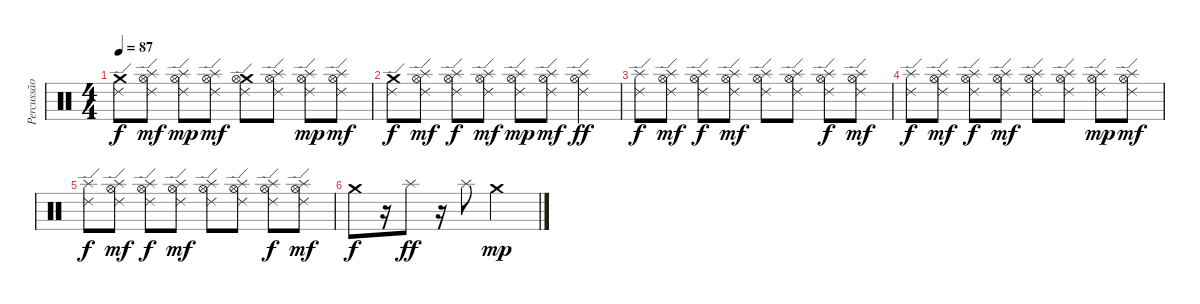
\track ("Percussão" "Percussão") {instrument percussion}
\staff {score}
\articulation defaults
\ts (4 4)
\tempo 87
\clef neutral
\ks c
("Crash medium (hit)" "Ride (edge) 2").8{dy f} ("Splash (hit)" "Hi-Hat (open)" "Ride (edge) 2").8{dy mf} ("Splash (hit)" "Hi-Hat (open)" "Ride (edge) 2").8{dy mp} ("Splash (hit)" "Hi-Hat (open)" "Ride (edge) 2").8{dy mf} ("Crash medium (hit)" "Hi-Hat (open)" "Ride (edge) 2").8 ("Splash (hit)" "Hi-Hat (open)" "Ride (edge) 2").8 ("Splash (hit)" "Hi-Hat (open)" "Ride (edge) 2").8{dy mp} ("Splash (hit)" "Hi-Hat (open)" "Ride (edge) 2").8{dy mf} |
("Crash medium (hit)" "Ride (edge) 2").8{dy f} ("Splash (hit)" "Hi-Hat (open)" "Ride (edge) 2").8{dy mf} ("Splash (hit)" "Hi-Hat (open)" "Ride (edge) 2").8{dy f} ("Splash (hit)" "Hi-Hat (open)" "Ride (edge) 2").8{dy mf} ("Splash (hit)" "Hi-Hat (open)" "Ride (edge) 2").8{dy mp} ("Splash (hit)" "Hi-Hat (open)" "Ride (edge) 2").8{dy mf} ("Splash (hit)" "Hi-Hat (open)" "Ride (edge) 2").4{dy ff} |
("Splash (hit)" "Ride (edge) 2").8{dy f} ("Splash (hit)" "Hi-Hat (open)" "Ride (edge) 2").8{dy mf} ("Splash (hit)" "Hi-Hat (open)" "Ride (edge) 2").8{dy f} ("Splash (hit)" "Hi-Hat (open)" "Ride (edge) 2").8{dy mf} ("Splash (hit)" "Hi-Hat (open)" "Ride (edge) 2").8 ("Splash (hit)" "Hi-Hat (open)" "Ride (edge) 2").8 ("Splash (hit)" "Hi-Hat (open)" "Ride (edge) 2").8{dy f} ("Splash (hit)" "Hi-Hat (open)" "Ride (edge) 2").8{dy mf} |
("Splash (hit)" "Ride (edge) 2").8{dy f} ("Splash (hit)" "Hi-Hat (open)" "Ride (edge) 2").8{dy mf} ("Splash (hit)" "Hi-Hat (open)" "Ride (edge) 2").8{dy f} ("Splash (hit)" "Hi-Hat (open)" "Ride (edge) 2").8{dy mf} ("Splash (hit)" "Hi-Hat (open)" "Ride (edge) 2").8 ("Splash (hit)" "Hi-Hat (open)" "Ride (edge) 2").8 ("Splash (hit)" "Hi-Hat (open)" "Ride (edge) 2").8{dy mp} ("Splash (hit)" "Hi-Hat (open)" "Ride (edge) 2").8{dy mf} |
("Splash (hit)" "Ride (edge) 2").8{dy f} ("Splash (hit)" "Hi-Hat (open)" "Ride (edge) 2").8{dy mf} ("Splash (hit)" "Hi-Hat (open)" "Ride (edge) 2").8{dy f} ("Splash (hit)" "Hi-Hat (open)" "Ride (edge) 2").8{dy mf} ("Splash (hit)" "Hi-Hat (open)" "Ride (edge) 2").8 ("Splash (hit)" "Hi-Hat (open)" "Ride (edge) 2").8 ("Splash (hit)" "Hi-Hat (open)" "Ride (edge) 2").8{dy f} ("Splash (hit)" "Hi-Hat (open)" "Ride (edge) 2").8{dy mf} |
"Crash medium (hit)".8{dy f} r.16 "Splash (hit)".8{dy ff} r.16 "Splash (hit)".8 "Crash medium (hit)".2{dy mp}
